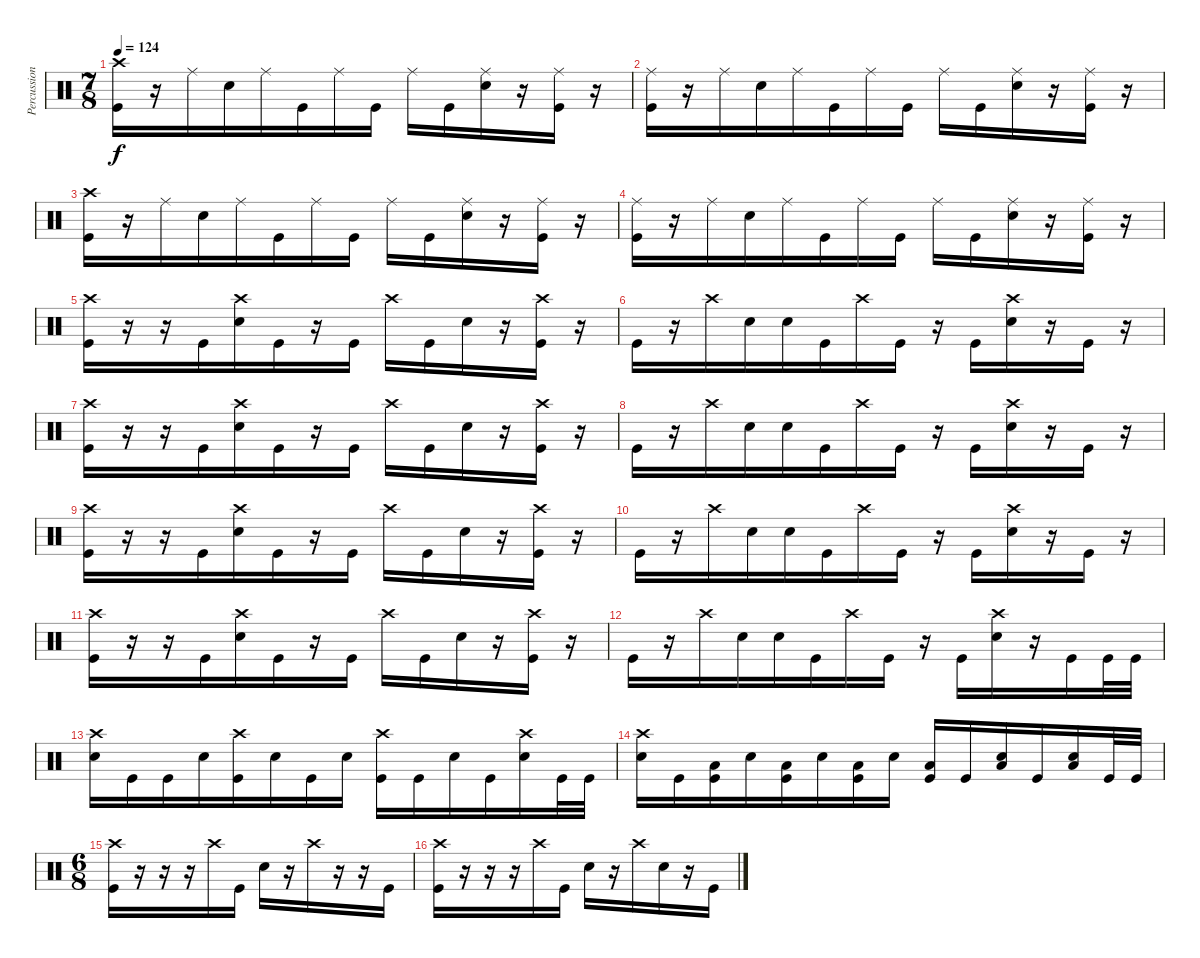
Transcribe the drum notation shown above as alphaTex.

\track ("Percussion" "Percussion") {instrument percussion}
\staff {score}
\articulation defaults
\ts (7 8)
\tempo 124
\clef neutral
\ks c
("Kick (hit)" "Crash high (hit)").16{dy f volume 13} r.16 "Ride (middle)".16 "Snare (hit) 2".16 "Ride (middle)".16 "Kick (hit)".16 "Ride (middle)".16 "Kick (hit)".16 "Ride (middle)".16 "Kick (hit)".16 ("Ride (middle)" "Snare (hit) 2").16 r.16 ("Ride (middle)" "Kick (hit)").16 r.16 |
("Kick (hit)" "Ride (middle)").16{volume 13} r.16 "Ride (middle)".16 "Snare (hit) 2".16 "Ride (middle)".16 "Kick (hit)".16 "Ride (middle)".16 "Kick (hit)".16 "Ride (middle)".16 "Kick (hit)".16 ("Ride (middle)" "Snare (hit) 2").16 r.16 ("Ride (middle)" "Kick (hit)").16 r.16 |
("Kick (hit)" "Crash high (hit)").16{volume 13} r.16 "Ride (middle)".16 "Snare (hit) 2".16 "Ride (middle)".16 "Kick (hit)".16 "Ride (middle)".16 "Kick (hit)".16 "Ride (middle)".16 "Kick (hit)".16 ("Ride (middle)" "Snare (hit) 2").16 r.16 ("Ride (middle)" "Kick (hit)").16 r.16 |
("Kick (hit)" "Ride (middle)").16{volume 13} r.16 "Ride (middle)".16 "Snare (hit) 2".16 "Ride (middle)".16 "Kick (hit)".16 "Ride (middle)".16 "Kick (hit)".16 "Ride (middle)".16 "Kick (hit)".16 ("Ride (middle)" "Snare (hit) 2").16 r.16 ("Ride (middle)" "Kick (hit)").16 r.16 |
("Kick (hit)" "Crash high (hit)").16{volume 13} r.16 r.16 "Kick (hit)".16 ("Crash high (hit)" "Snare (hit) 2").16 "Kick (hit)".16 r.16 "Kick (hit)".16 "Crash high (hit)".16 "Kick (hit)".16 "Snare (hit) 2".16 r.16 ("Crash high (hit)" "Kick (hit)").16 r.16 |
"Kick (hit)".16{volume 13} r.16 "Crash high (hit)".16 "Snare (hit) 2".16 "Snare (hit) 2".16 "Kick (hit)".16 "Crash high (hit)".16 "Kick (hit)".16 r.16 "Kick (hit)".16 ("Crash high (hit)" "Snare (hit) 2").16 r.16 "Kick (hit)".16 r.16 |
("Kick (hit)" "Crash high (hit)").16{volume 13} r.16 r.16 "Kick (hit)".16 ("Crash high (hit)" "Snare (hit) 2").16 "Kick (hit)".16 r.16 "Kick (hit)".16 "Crash high (hit)".16 "Kick (hit)".16 "Snare (hit) 2".16 r.16 ("Crash high (hit)" "Kick (hit)").16 r.16 |
"Kick (hit)".16{volume 13} r.16 "Crash high (hit)".16 "Snare (hit) 2".16 "Snare (hit) 2".16 "Kick (hit)".16 "Crash high (hit)".16 "Kick (hit)".16 r.16 "Kick (hit)".16 ("Crash high (hit)" "Snare (hit) 2").16 r.16 "Kick (hit)".16 r.16 |
("Kick (hit)" "Crash high (hit)").16{volume 13} r.16 r.16 "Kick (hit)".16 ("Crash high (hit)" "Snare (hit) 2").16 "Kick (hit)".16 r.16 "Kick (hit)".16 "Crash high (hit)".16 "Kick (hit)".16 "Snare (hit) 2".16 r.16 ("Crash high (hit)" "Kick (hit)").16 r.16 |
"Kick (hit)".16{volume 13} r.16 "Crash high (hit)".16 "Snare (hit) 2".16 "Snare (hit) 2".16 "Kick (hit)".16 "Crash high (hit)".16 "Kick (hit)".16 r.16 "Kick (hit)".16 ("Crash high (hit)" "Snare (hit) 2").16 r.16 "Kick (hit)".16 r.16 |
("Kick (hit)" "Crash high (hit)").16{volume 13} r.16 r.16 "Kick (hit)".16 ("Crash high (hit)" "Snare (hit) 2").16 "Kick (hit)".16 r.16 "Kick (hit)".16 "Crash high (hit)".16 "Kick (hit)".16 "Snare (hit) 2".16 r.16 ("Crash high (hit)" "Kick (hit)").16 r.16 |
"Kick (hit)".16{volume 13} r.16 "Crash high (hit)".16 "Snare (hit) 2".16 "Snare (hit) 2".16 "Kick (hit)".16 "Crash high (hit)".16 "Kick (hit)".16 r.16 "Kick (hit)".16 ("Crash high (hit)" "Snare (hit) 2").16 r.16 "Kick (hit)".16 "Kick (hit)".32 "Kick (hit)".32 |
("Snare (hit) 2" "Crash high (hit)").16 "Kick (hit)".16 "Kick (hit)".16 "Snare (hit) 2".16 ("Kick (hit)" "Crash high (hit)").16 "Snare (hit) 2".16 "Kick (hit)".16 "Snare (hit) 2".16 ("Kick (hit)" "Crash high (hit)").16 "Kick (hit)".16 "Snare (hit) 2".16 "Kick (hit)".16 ("Snare (hit) 2" "Crash high (hit)").16 "Kick (hit)".32 "Kick (hit)".32 |
("Snare (hit) 2" "Crash high (hit)").16 "Kick (hit)".16 ("Kick (hit)" "Low Floor Tom (hit)").16 "Snare (hit) 2".16 ("Kick (hit)" "Low Floor Tom (hit)").16 "Snare (hit) 2".16 ("Kick (hit)" "Low Floor Tom (hit)").16 "Snare (hit) 2".16 ("Kick (hit)" "Low Floor Tom (hit)").16 "Kick (hit)".16 ("Snare (hit) 2" "Low Floor Tom (hit)").16 "Kick (hit)".16 ("Snare (hit) 2" "Low Floor Tom (hit)").16 "Kick (hit)".32 "Kick (hit)".32 |
\ts (6 8)
("Crash high (hit)" "Kick (hit)").16 r.16 r.16 r.16 "Crash high (hit)".16 "Kick (hit)".16 "Snare (hit) 2".16 r.16 "Crash high (hit)".16 r.16 r.16 "Kick (hit)".16 |
("Crash high (hit)" "Kick (hit)").16 r.16 r.16 r.16 "Crash high (hit)".16 "Kick (hit)".16 "Snare (hit) 2".16 r.16 "Crash high (hit)".16 "Snare (hit) 2".16 r.16 "Kick (hit)".16
